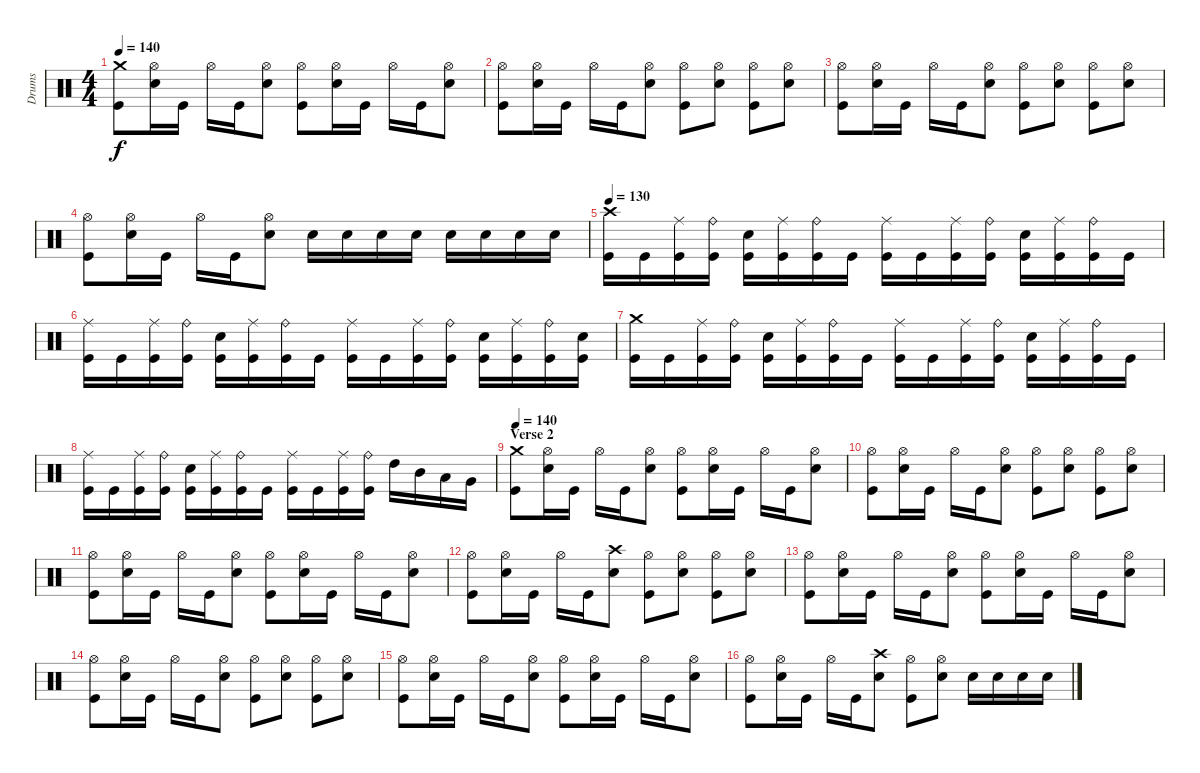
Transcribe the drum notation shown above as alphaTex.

\track ("Drums" "Drums") {instrument percussion}
\staff {score}
\articulation defaults
\ts (4 4)
\tempo 140
\clef neutral
\ks c
("Crash medium (hit)" "Kick (hit)").8{dy f} ("Hi-Hat (open)" "Snare (hit) 2").16 "Kick (hit)".16 "Hi-Hat (open)".16 "Kick (hit)".16 ("Hi-Hat (open)" "Snare (hit) 2").8 ("Hi-Hat (open)" "Kick (hit)").8 ("Hi-Hat (open)" "Snare (hit) 2").16 "Kick (hit)".16 "Hi-Hat (open)".16 "Kick (hit)".16 ("Hi-Hat (open)" "Snare (hit) 2").8 |
("Hi-Hat (open)" "Kick (hit)").8 ("Hi-Hat (open)" "Snare (hit) 2").16 "Kick (hit)".16 "Hi-Hat (open)".16 "Kick (hit)".16 ("Hi-Hat (open)" "Snare (hit) 2").8 ("Hi-Hat (open)" "Kick (hit)").8 ("Hi-Hat (open)" "Snare (hit) 2").8 ("Hi-Hat (open)" "Kick (hit)").8 ("Hi-Hat (open)" "Snare (hit) 2").8 |
("Hi-Hat (open)" "Kick (hit)").8 ("Hi-Hat (open)" "Snare (hit) 2").16 "Kick (hit)".16 "Hi-Hat (open)".16 "Kick (hit)".16 ("Hi-Hat (open)" "Snare (hit) 2").8 ("Hi-Hat (open)" "Kick (hit)").8 ("Hi-Hat (open)" "Snare (hit) 2").8 ("Hi-Hat (open)" "Kick (hit)").8 ("Hi-Hat (open)" "Snare (hit) 2").8 |
("Hi-Hat (open)" "Kick (hit)").8 ("Hi-Hat (open)" "Snare (hit) 2").16 "Kick (hit)".16 "Hi-Hat (open)".16 "Kick (hit)".16 ("Hi-Hat (open)" "Snare (hit) 2").8 "Snare (hit) 2".16 "Snare (hit) 2".16 "Snare (hit) 2".16 "Snare (hit) 2".16 "Snare (hit) 2".16 "Snare (hit) 2".16 "Snare (hit) 2".16 "Snare (hit) 2".16 |
\tempo 130
("Crash high (hit)" "Kick (hit)").16 "Kick (hit)".16 ("Ride (middle)" "Kick (hit)").16 ("Ride (bell)" "Kick (hit)").16 ("Snare (hit) 2" "Kick (hit)").16 ("Ride (middle)" "Kick (hit)").16 ("Ride (bell)" "Kick (hit)").16 "Kick (hit)".16 ("Ride (middle)" "Kick (hit)").16 "Kick (hit)".16 ("Ride (middle)" "Kick (hit)").16 ("Ride (bell)" "Kick (hit)").16 ("Snare (hit) 2" "Kick (hit)").16 ("Ride (middle)" "Kick (hit)").16 ("Ride (bell)" "Kick (hit)").16 "Kick (hit)".16 |
("Ride (middle)" "Kick (hit)").16 "Kick (hit)".16 ("Ride (middle)" "Kick (hit)").16 ("Ride (bell)" "Kick (hit)").16 ("Snare (hit) 2" "Kick (hit)").16 ("Ride (middle)" "Kick (hit)").16 ("Ride (bell)" "Kick (hit)").16 "Kick (hit)".16 ("Ride (middle)" "Kick (hit)").16 "Kick (hit)".16 ("Ride (middle)" "Kick (hit)").16 ("Ride (bell)" "Kick (hit)").16 ("Snare (hit) 2" "Kick (hit)").16 ("Ride (middle)" "Kick (hit)").16 ("Ride (bell)" "Kick (hit)").16 ("Snare (hit) 2" "Kick (hit)").16 |
("Crash medium (hit)" "Kick (hit)").16 "Kick (hit)".16 ("Ride (middle)" "Kick (hit)").16 ("Ride (bell)" "Kick (hit)").16 ("Snare (hit) 2" "Kick (hit)").16 ("Ride (middle)" "Kick (hit)").16 ("Ride (bell)" "Kick (hit)").16 "Kick (hit)".16 ("Ride (middle)" "Kick (hit)").16 "Kick (hit)".16 ("Ride (middle)" "Kick (hit)").16 ("Ride (bell)" "Kick (hit)").16 ("Snare (hit) 2" "Kick (hit)").16 ("Ride (middle)" "Kick (hit)").16 ("Ride (bell)" "Kick (hit)").16 "Kick (hit)".16 |
("Ride (middle)" "Kick (hit)").16 "Kick (hit)".16 ("Ride (middle)" "Kick (hit)").16 ("Ride (bell)" "Kick (hit)").16 ("Snare (hit) 2" "Kick (hit)").16 ("Ride (middle)" "Kick (hit)").16 ("Ride (bell)" "Kick (hit)").16 "Kick (hit)".16 ("Ride (middle)" "Kick (hit)").16 "Kick (hit)".16 ("Ride (middle)" "Kick (hit)").16 ("Ride (bell)" "Kick (hit)").16 "High Tom (hit)".16 "Mid Tom (hit)".16 "Low Tom (hit)".16 "Very Low Tom (hit)".16 |
\section ("" "Verse 2")
\tempo 140
("Crash medium (hit)" "Kick (hit)").8 ("Hi-Hat (open)" "Snare (hit) 2").16 "Kick (hit)".16 "Hi-Hat (open)".16 "Kick (hit)".16 ("Hi-Hat (open)" "Snare (hit) 2").8 ("Hi-Hat (open)" "Kick (hit)").8 ("Hi-Hat (open)" "Snare (hit) 2").16 "Kick (hit)".16 "Hi-Hat (open)".16 "Kick (hit)".16 ("Hi-Hat (open)" "Snare (hit) 2").8 |
("Hi-Hat (open)" "Kick (hit)").8 ("Hi-Hat (open)" "Snare (hit) 2").16 "Kick (hit)".16 "Hi-Hat (open)".16 "Kick (hit)".16 ("Hi-Hat (open)" "Snare (hit) 2").8 ("Hi-Hat (open)" "Kick (hit)").8 ("Hi-Hat (open)" "Snare (hit) 2").8 ("Hi-Hat (open)" "Kick (hit)").8 ("Hi-Hat (open)" "Snare (hit) 2").8 |
("Hi-Hat (open)" "Kick (hit)").8 ("Hi-Hat (open)" "Snare (hit) 2").16 "Kick (hit)".16 "Hi-Hat (open)".16 "Kick (hit)".16 ("Hi-Hat (open)" "Snare (hit) 2").8 ("Hi-Hat (open)" "Kick (hit)").8 ("Hi-Hat (open)" "Snare (hit) 2").16 "Kick (hit)".16 "Hi-Hat (open)".16 "Kick (hit)".16 ("Hi-Hat (open)" "Snare (hit) 2").8 |
("Hi-Hat (open)" "Kick (hit)").8 ("Hi-Hat (open)" "Snare (hit) 2").16 "Kick (hit)".16 "Hi-Hat (open)".16 "Kick (hit)".16 ("Crash high (hit)" "Snare (hit) 2").8 ("Hi-Hat (open)" "Kick (hit)").8 ("Hi-Hat (open)" "Snare (hit) 2").8 ("Hi-Hat (open)" "Kick (hit)").8 ("Hi-Hat (open)" "Snare (hit) 2").8 |
("Hi-Hat (open)" "Kick (hit)").8 ("Hi-Hat (open)" "Snare (hit) 2").16 "Kick (hit)".16 "Hi-Hat (open)".16 "Kick (hit)".16 ("Hi-Hat (open)" "Snare (hit) 2").8 ("Hi-Hat (open)" "Kick (hit)").8 ("Hi-Hat (open)" "Snare (hit) 2").16 "Kick (hit)".16 "Hi-Hat (open)".16 "Kick (hit)".16 ("Hi-Hat (open)" "Snare (hit) 2").8 |
("Hi-Hat (open)" "Kick (hit)").8 ("Hi-Hat (open)" "Snare (hit) 2").16 "Kick (hit)".16 "Hi-Hat (open)".16 "Kick (hit)".16 ("Hi-Hat (open)" "Snare (hit) 2").8 ("Hi-Hat (open)" "Kick (hit)").8 ("Hi-Hat (open)" "Snare (hit) 2").8 ("Hi-Hat (open)" "Kick (hit)").8 ("Hi-Hat (open)" "Snare (hit) 2").8 |
("Hi-Hat (open)" "Kick (hit)").8 ("Hi-Hat (open)" "Snare (hit) 2").16 "Kick (hit)".16 "Hi-Hat (open)".16 "Kick (hit)".16 ("Hi-Hat (open)" "Snare (hit) 2").8 ("Hi-Hat (open)" "Kick (hit)").8 ("Hi-Hat (open)" "Snare (hit) 2").16 "Kick (hit)".16 "Hi-Hat (open)".16 "Kick (hit)".16 ("Hi-Hat (open)" "Snare (hit) 2").8 |
("Hi-Hat (open)" "Kick (hit)").8 ("Hi-Hat (open)" "Snare (hit) 2").16 "Kick (hit)".16 "Hi-Hat (open)".16 "Kick (hit)".16 ("Crash high (hit)" "Snare (hit) 2").8 ("Hi-Hat (open)" "Kick (hit)").8 ("Hi-Hat (open)" "Snare (hit) 2").8 "Snare (hit) 2".16 "Snare (hit) 2".16 "Snare (hit) 2".16 "Snare (hit) 2".16
